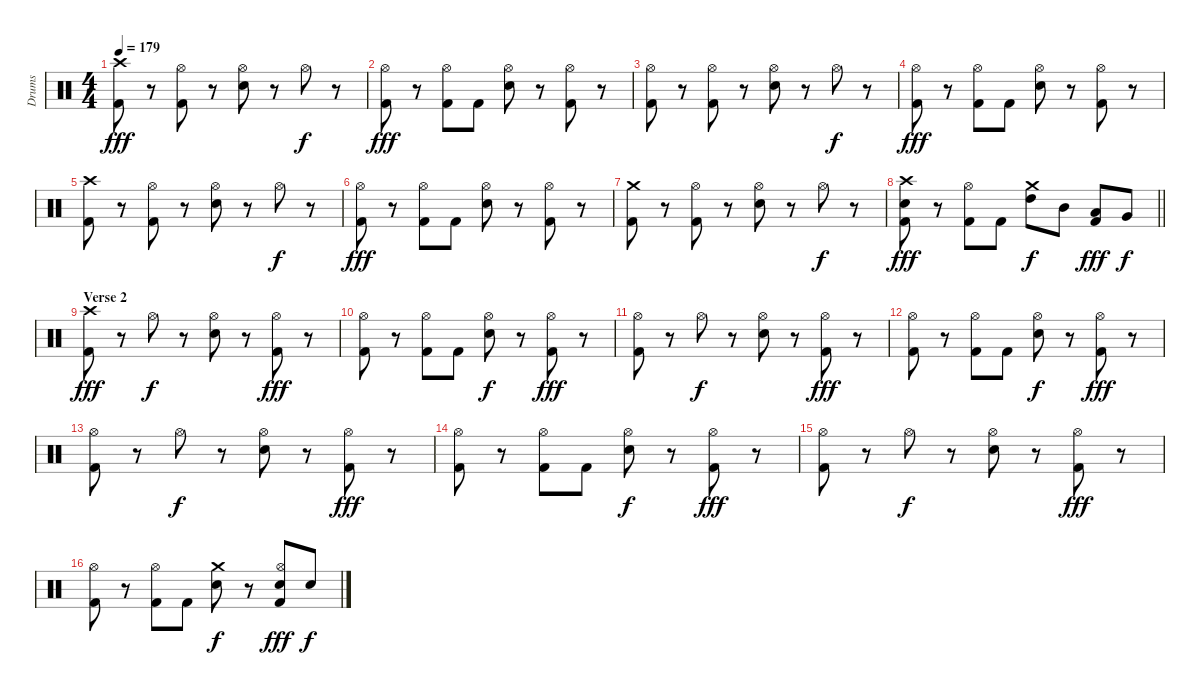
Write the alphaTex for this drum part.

\track ("Drums" "Drums") {instrument percussion}
\staff {score}
\articulation defaults
\ts (4 4)
\tempo 179
\clef neutral
\ks c
("Crash high (hit)" "Kick (hit) 2").8{dy fff} r.8 ("Hi-Hat (open)" "Kick (hit) 2").8 r.8 ("Hi-Hat (open)" "Snare (hit) 2").8 r.8 "Hi-Hat (open)".8{dy f} r.8 |
("Hi-Hat (open)" "Kick (hit) 2").8{dy fff} r.8 ("Hi-Hat (open)" "Kick (hit) 2").8 "Kick (hit) 2".8 ("Hi-Hat (open)" "Snare (hit) 2").8 r.8 ("Hi-Hat (open)" "Kick (hit) 2").8 r.8 |
("Hi-Hat (open)" "Kick (hit) 2").8 r.8 ("Hi-Hat (open)" "Kick (hit) 2").8 r.8 ("Hi-Hat (open)" "Snare (hit) 2").8 r.8 "Hi-Hat (open)".8{dy f} r.8 |
("Hi-Hat (open)" "Kick (hit) 2").8{dy fff} r.8 ("Hi-Hat (open)" "Kick (hit) 2").8 "Kick (hit) 2".8 ("Hi-Hat (open)" "Snare (hit) 2").8 r.8 ("Hi-Hat (open)" "Kick (hit) 2").8 r.8 |
("Crash high (hit)" "Kick (hit) 2").8 r.8 ("Hi-Hat (open)" "Kick (hit) 2").8 r.8 ("Hi-Hat (open)" "Snare (hit) 2").8 r.8 "Hi-Hat (open)".8{dy f} r.8 |
("Hi-Hat (open)" "Kick (hit) 2").8{dy fff} r.8 ("Hi-Hat (open)" "Kick (hit) 2").8 "Kick (hit) 2".8 ("Hi-Hat (open)" "Snare (hit) 2").8 r.8 ("Hi-Hat (open)" "Kick (hit) 2").8 r.8 |
("Crash medium (hit)" "Kick (hit) 2").8 r.8 ("Hi-Hat (open)" "Kick (hit) 2").8 r.8 ("Hi-Hat (open)" "Snare (hit) 2").8 r.8 "Hi-Hat (open)".8{dy f} r.8 |
\barLineRight lightlight
("Crash high (hit)" "Snare (hit) 2" "Kick (hit) 2").8{dy fff} r.8 ("Hi-Hat (open)" "Kick (hit) 2").8 "Kick (hit) 2".8 ("Crash medium (hit)" "High Tom (hit)").8{dy f} "Mid Tom (hit)".8 ("Low Tom (hit)" "Kick (hit) 2").8{dy fff} "Very Low Tom (hit)".8{dy f} |
\section ("" "Verse 2")
("Crash high (hit)" "Kick (hit) 2").8{dy fff} r.8 "Hi-Hat (open)".8{dy f} r.8 ("Hi-Hat (open)" "Snare (hit) 2").8 r.8 ("Hi-Hat (open)" "Kick (hit) 2").8{dy fff} r.8 |
("Hi-Hat (open)" "Kick (hit) 2").8 r.8 ("Hi-Hat (open)" "Kick (hit) 2").8 "Kick (hit) 2".8 ("Hi-Hat (open)" "Snare (hit) 2").8{dy f} r.8 ("Hi-Hat (open)" "Kick (hit) 2").8{dy fff} r.8 |
("Hi-Hat (open)" "Kick (hit) 2").8 r.8 "Hi-Hat (open)".8{dy f} r.8 ("Hi-Hat (open)" "Snare (hit) 2").8 r.8 ("Hi-Hat (open)" "Kick (hit) 2").8{dy fff} r.8 |
("Hi-Hat (open)" "Kick (hit) 2").8 r.8 ("Hi-Hat (open)" "Kick (hit) 2").8 "Kick (hit) 2".8 ("Hi-Hat (open)" "Snare (hit) 2").8{dy f} r.8 ("Hi-Hat (open)" "Kick (hit) 2").8{dy fff} r.8 |
("Hi-Hat (open)" "Kick (hit) 2").8 r.8 "Hi-Hat (open)".8{dy f} r.8 ("Hi-Hat (open)" "Snare (hit) 2").8 r.8 ("Hi-Hat (open)" "Kick (hit) 2").8{dy fff} r.8 |
("Hi-Hat (open)" "Kick (hit) 2").8 r.8 ("Hi-Hat (open)" "Kick (hit) 2").8 "Kick (hit) 2".8 ("Hi-Hat (open)" "Snare (hit) 2").8{dy f} r.8 ("Hi-Hat (open)" "Kick (hit) 2").8{dy fff} r.8 |
("Hi-Hat (open)" "Kick (hit) 2").8 r.8 "Hi-Hat (open)".8{dy f} r.8 ("Hi-Hat (open)" "Snare (hit) 2").8 r.8 ("Hi-Hat (open)" "Kick (hit) 2").8{dy fff} r.8 |
("Hi-Hat (open)" "Kick (hit) 2").8 r.8 ("Hi-Hat (open)" "Kick (hit) 2").8 "Kick (hit) 2".8 ("Crash medium (hit)" "Snare (hit) 2").8{dy f} r.8 ("Hi-Hat (open)" "Snare (hit) 2" "Kick (hit) 2").8{dy fff} "Snare (hit) 2".8{dy f}
